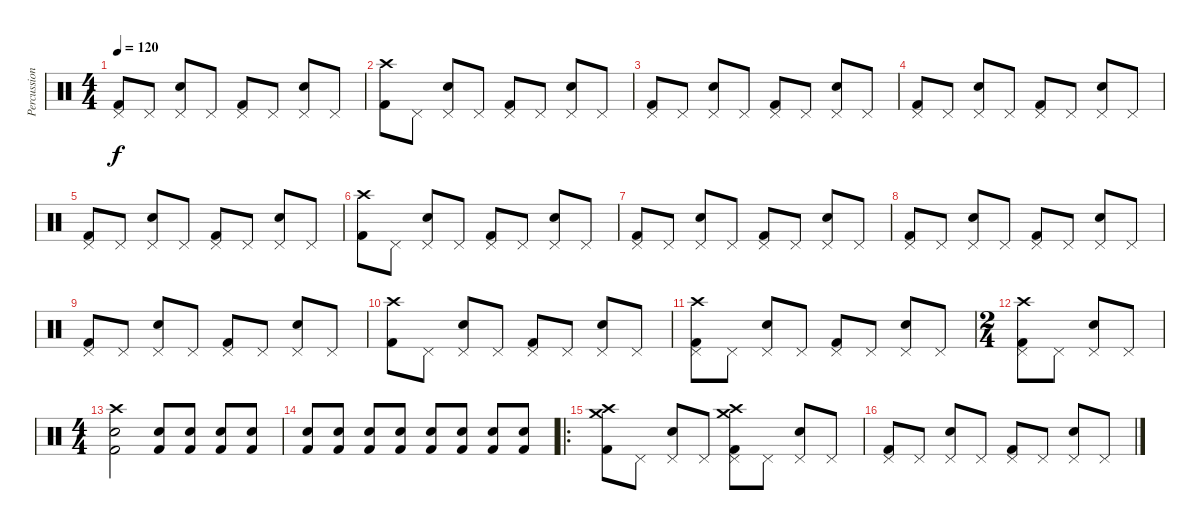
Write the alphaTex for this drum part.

\track ("Percussions" "Percussion") {instrument percussion}
\staff {score}
\articulation defaults
\ts (4 4)
\tempo 120
\clef neutral
\ks c
("Pedal Hi-Hat (hit)" "Kick (hit) 2").8{dy f} "Pedal Hi-Hat (hit)".8 ("Pedal Hi-Hat (hit)" "Snare (hit) 2").8 "Pedal Hi-Hat (hit)".8 ("Pedal Hi-Hat (hit)" "Kick (hit) 2").8 "Pedal Hi-Hat (hit)".8 ("Pedal Hi-Hat (hit)" "Snare (hit) 2").8 "Pedal Hi-Hat (hit)".8 |
("Crash high (hit)" "Kick (hit) 2").8 "Pedal Hi-Hat (hit)".8 ("Pedal Hi-Hat (hit)" "Snare (hit) 2").8 "Pedal Hi-Hat (hit)".8 ("Pedal Hi-Hat (hit)" "Kick (hit) 2").8 "Pedal Hi-Hat (hit)".8 ("Pedal Hi-Hat (hit)" "Snare (hit) 2").8 "Pedal Hi-Hat (hit)".8 |
("Pedal Hi-Hat (hit)" "Kick (hit) 2").8 "Pedal Hi-Hat (hit)".8 ("Pedal Hi-Hat (hit)" "Snare (hit) 2").8 "Pedal Hi-Hat (hit)".8 ("Pedal Hi-Hat (hit)" "Kick (hit) 2").8 "Pedal Hi-Hat (hit)".8 ("Pedal Hi-Hat (hit)" "Snare (hit) 2").8 "Pedal Hi-Hat (hit)".8 |
("Pedal Hi-Hat (hit)" "Kick (hit) 2").8 "Pedal Hi-Hat (hit)".8 ("Pedal Hi-Hat (hit)" "Snare (hit) 2").8 "Pedal Hi-Hat (hit)".8 ("Pedal Hi-Hat (hit)" "Kick (hit) 2").8 "Pedal Hi-Hat (hit)".8 ("Pedal Hi-Hat (hit)" "Snare (hit) 2").8 "Pedal Hi-Hat (hit)".8 |
("Pedal Hi-Hat (hit)" "Kick (hit) 2").8 "Pedal Hi-Hat (hit)".8 ("Pedal Hi-Hat (hit)" "Snare (hit) 2").8 "Pedal Hi-Hat (hit)".8 ("Pedal Hi-Hat (hit)" "Kick (hit) 2").8 "Pedal Hi-Hat (hit)".8 ("Pedal Hi-Hat (hit)" "Snare (hit) 2").8 "Pedal Hi-Hat (hit)".8 |
("Crash high (hit)" "Kick (hit) 2").8 "Pedal Hi-Hat (hit)".8 ("Pedal Hi-Hat (hit)" "Snare (hit) 2").8 "Pedal Hi-Hat (hit)".8 ("Pedal Hi-Hat (hit)" "Kick (hit) 2").8 "Pedal Hi-Hat (hit)".8 ("Pedal Hi-Hat (hit)" "Snare (hit) 2").8 "Pedal Hi-Hat (hit)".8 |
("Pedal Hi-Hat (hit)" "Kick (hit) 2").8 "Pedal Hi-Hat (hit)".8 ("Pedal Hi-Hat (hit)" "Snare (hit) 2").8 "Pedal Hi-Hat (hit)".8 ("Pedal Hi-Hat (hit)" "Kick (hit) 2").8 "Pedal Hi-Hat (hit)".8 ("Pedal Hi-Hat (hit)" "Snare (hit) 2").8 "Pedal Hi-Hat (hit)".8 |
("Pedal Hi-Hat (hit)" "Kick (hit) 2").8 "Pedal Hi-Hat (hit)".8 ("Pedal Hi-Hat (hit)" "Snare (hit) 2").8 "Pedal Hi-Hat (hit)".8 ("Pedal Hi-Hat (hit)" "Kick (hit) 2").8 "Pedal Hi-Hat (hit)".8 ("Pedal Hi-Hat (hit)" "Snare (hit) 2").8 "Pedal Hi-Hat (hit)".8 |
("Pedal Hi-Hat (hit)" "Kick (hit) 2").8 "Pedal Hi-Hat (hit)".8 ("Pedal Hi-Hat (hit)" "Snare (hit) 2").8 "Pedal Hi-Hat (hit)".8 ("Pedal Hi-Hat (hit)" "Kick (hit) 2").8 "Pedal Hi-Hat (hit)".8 ("Pedal Hi-Hat (hit)" "Snare (hit) 2").8 "Pedal Hi-Hat (hit)".8 |
("Crash high (hit)" "Kick (hit) 2").8 "Pedal Hi-Hat (hit)".8 ("Pedal Hi-Hat (hit)" "Snare (hit) 2").8 "Pedal Hi-Hat (hit)".8 ("Pedal Hi-Hat (hit)" "Kick (hit) 2").8 "Pedal Hi-Hat (hit)".8 ("Pedal Hi-Hat (hit)" "Snare (hit) 2").8 "Pedal Hi-Hat (hit)".8 |
("Pedal Hi-Hat (hit)" "Crash high (hit)" "Kick (hit) 2").8 "Pedal Hi-Hat (hit)".8 ("Pedal Hi-Hat (hit)" "Snare (hit) 2").8 "Pedal Hi-Hat (hit)".8 ("Pedal Hi-Hat (hit)" "Kick (hit) 2").8 "Pedal Hi-Hat (hit)".8 ("Pedal Hi-Hat (hit)" "Snare (hit) 2").8 "Pedal Hi-Hat (hit)".8 |
\ts (2 4)
("Pedal Hi-Hat (hit)" "Crash high (hit)" "Kick (hit) 2").8 "Pedal Hi-Hat (hit)".8 ("Pedal Hi-Hat (hit)" "Snare (hit) 2").8 "Pedal Hi-Hat (hit)".8 |
\ts (4 4)
("Crash high (hit)" "Kick (hit) 2" "Snare (hit) 2").2 ("Kick (hit) 2" "Snare (hit) 2").8{volume 3} ("Kick (hit) 2" "Snare (hit) 2").8{volume 16} ("Kick (hit) 2" "Snare (hit) 2").8 ("Kick (hit) 2" "Snare (hit) 2").8 |
("Kick (hit) 2" "Snare (hit) 2").8 ("Kick (hit) 2" "Snare (hit) 2").8 ("Kick (hit) 2" "Snare (hit) 2").8 ("Kick (hit) 2" "Snare (hit) 2").8 ("Kick (hit) 2" "Snare (hit) 2").8 ("Kick (hit) 2" "Snare (hit) 2").8 ("Kick (hit) 2" "Snare (hit) 2").8 ("Kick (hit) 2" "Snare (hit) 2").8 |
\ro
("Crash high (hit)" "Crash medium (hit)" "Kick (hit) 2").8 "Pedal Hi-Hat (hit)".8 ("Pedal Hi-Hat (hit)" "Snare (hit) 2").8 "Pedal Hi-Hat (hit)".8 ("Pedal Hi-Hat (hit)" "Crash high (hit)" "Crash medium (hit)" "Kick (hit) 2").8 "Pedal Hi-Hat (hit)".8 ("Pedal Hi-Hat (hit)" "Snare (hit) 2").8 "Pedal Hi-Hat (hit)".8 |
("Pedal Hi-Hat (hit)" "Kick (hit) 2").8 "Pedal Hi-Hat (hit)".8 ("Pedal Hi-Hat (hit)" "Snare (hit) 2").8 "Pedal Hi-Hat (hit)".8 ("Pedal Hi-Hat (hit)" "Kick (hit) 2").8 "Pedal Hi-Hat (hit)".8 ("Pedal Hi-Hat (hit)" "Snare (hit) 2").8 "Pedal Hi-Hat (hit)".8
